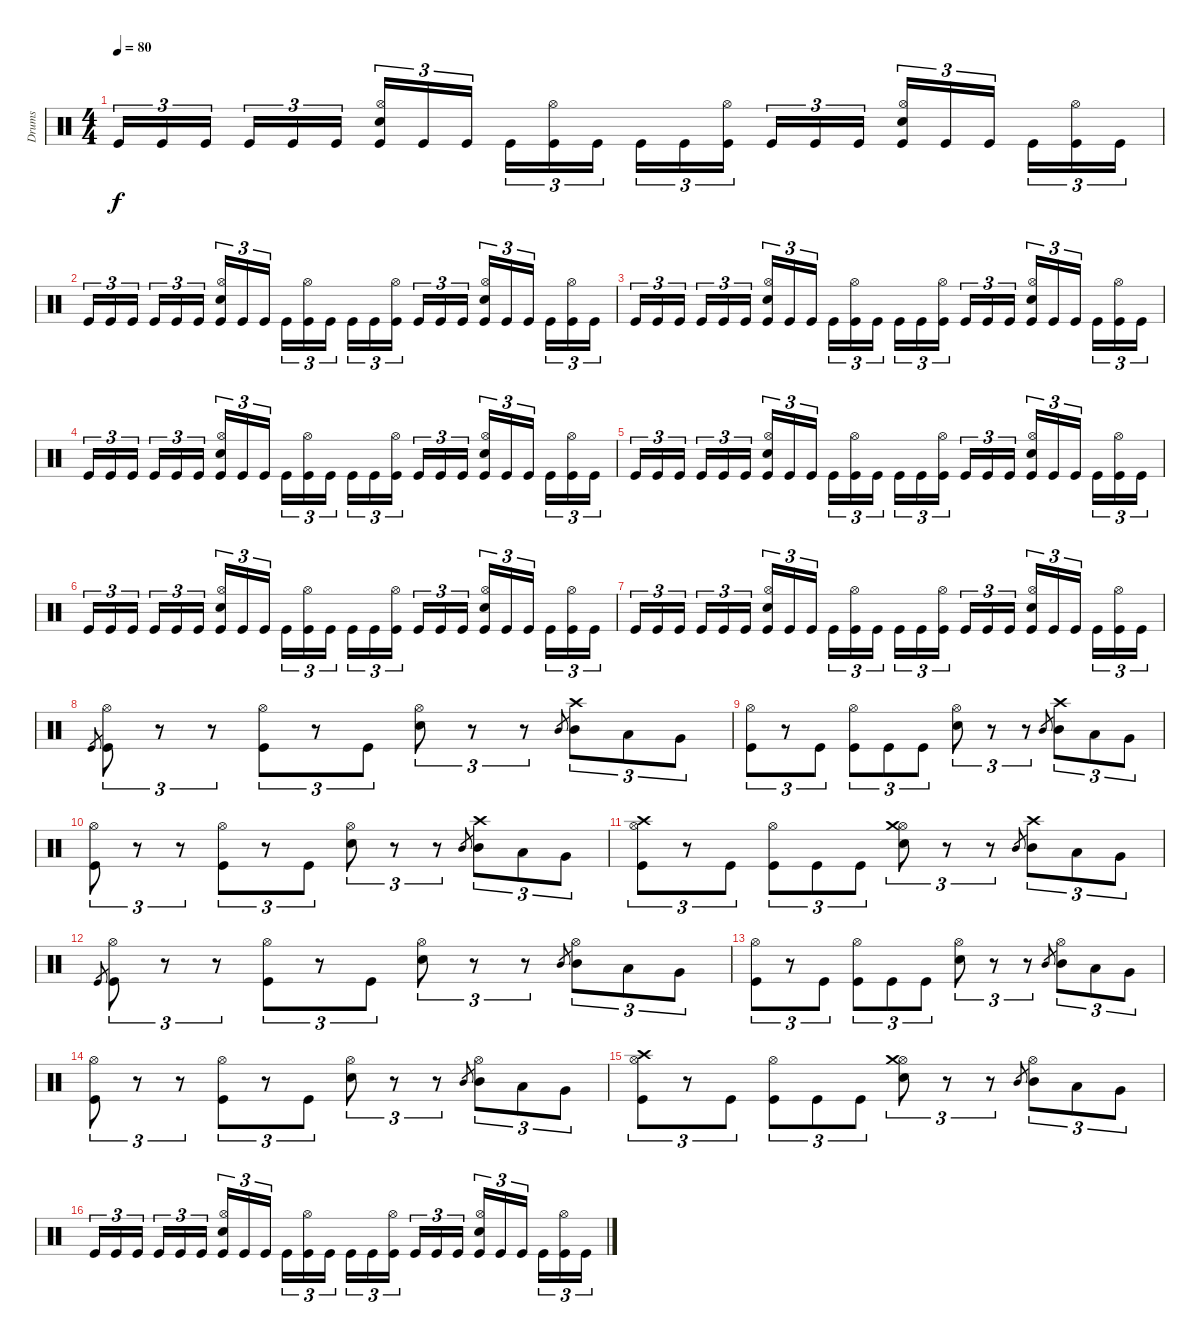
\track ("Drums" "Drums") {instrument percussion}
\staff {score}
\articulation defaults
\ts (4 4)
\tempo 80
\clef neutral
\ks c "Kick (hit)".16{tu (3 2) dy f} "Kick (hit)".16{tu (3 2)} "Kick (hit)".16{tu (3 2)} "Kick (hit)".16{tu (3 2)} "Kick (hit)".16{tu (3 2)} "Kick (hit)".16{tu (3 2)}
("Hi-Hat (open)" "Snare (hit) 2" "Kick (hit)").16{tu (3 2)} "Kick (hit)".16{tu (3 2)} "Kick (hit)".16{tu (3 2)} "Kick (hit)".16{tu (3 2)} ("Hi-Hat (open)" "Kick (hit)").16{tu (3 2)} "Kick (hit)".16{tu (3 2)} "Kick (hit)".16{tu (3 2)} "Kick (hit)".16{tu (3 2)} ("Hi-Hat (open)" "Kick (hit)").16{tu (3 2)} "Kick (hit)".16{tu (3 2)} "Kick (hit)".16{tu (3 2)} "Kick (hit)".16{tu (3 2)} ("Hi-Hat (open)" "Snare (hit) 2" "Kick (hit)").16{tu (3 2)} "Kick (hit)".16{tu (3 2)} "Kick (hit)".16{tu (3 2)} "Kick (hit)".16{tu (3 2)} ("Hi-Hat (open)" "Kick (hit)").16{tu (3 2)} "Kick (hit)".16{tu (3 2)} |
"Kick (hit)".16{tu (3 2)} "Kick (hit)".16{tu (3 2)} "Kick (hit)".16{tu (3 2)} "Kick (hit)".16{tu (3 2)} "Kick (hit)".16{tu (3 2)} "Kick (hit)".16{tu (3 2)} ("Hi-Hat (open)" "Snare (hit) 2" "Kick (hit)").16{tu (3 2)} "Kick (hit)".16{tu (3 2)} "Kick (hit)".16{tu (3 2)} "Kick (hit)".16{tu (3 2)} ("Hi-Hat (open)" "Kick (hit)").16{tu (3 2)} "Kick (hit)".16{tu (3 2)} "Kick (hit)".16{tu (3 2)} "Kick (hit)".16{tu (3 2)} ("Hi-Hat (open)" "Kick (hit)").16{tu (3 2)} "Kick (hit)".16{tu (3 2)} "Kick (hit)".16{tu (3 2)} "Kick (hit)".16{tu (3 2)} ("Hi-Hat (open)" "Snare (hit) 2" "Kick (hit)").16{tu (3 2)} "Kick (hit)".16{tu (3 2)} "Kick (hit)".16{tu (3 2)} "Kick (hit)".16{tu (3 2)} ("Hi-Hat (open)" "Kick (hit)").16{tu (3 2)} "Kick (hit)".16{tu (3 2)} |
"Kick (hit)".16{tu (3 2)} "Kick (hit)".16{tu (3 2)} "Kick (hit)".16{tu (3 2)} "Kick (hit)".16{tu (3 2)} "Kick (hit)".16{tu (3 2)} "Kick (hit)".16{tu (3 2)} ("Hi-Hat (open)" "Snare (hit) 2" "Kick (hit)").16{tu (3 2)} "Kick (hit)".16{tu (3 2)} "Kick (hit)".16{tu (3 2)} "Kick (hit)".16{tu (3 2)} ("Hi-Hat (open)" "Kick (hit)").16{tu (3 2)} "Kick (hit)".16{tu (3 2)} "Kick (hit)".16{tu (3 2)} "Kick (hit)".16{tu (3 2)} ("Hi-Hat (open)" "Kick (hit)").16{tu (3 2)} "Kick (hit)".16{tu (3 2)} "Kick (hit)".16{tu (3 2)} "Kick (hit)".16{tu (3 2)} ("Hi-Hat (open)" "Snare (hit) 2" "Kick (hit)").16{tu (3 2)} "Kick (hit)".16{tu (3 2)} "Kick (hit)".16{tu (3 2)} "Kick (hit)".16{tu (3 2)} ("Hi-Hat (open)" "Kick (hit)").16{tu (3 2)} "Kick (hit)".16{tu (3 2)} |
"Kick (hit)".16{tu (3 2)} "Kick (hit)".16{tu (3 2)} "Kick (hit)".16{tu (3 2)} "Kick (hit)".16{tu (3 2)} "Kick (hit)".16{tu (3 2)} "Kick (hit)".16{tu (3 2)} ("Hi-Hat (open)" "Snare (hit) 2" "Kick (hit)").16{tu (3 2)} "Kick (hit)".16{tu (3 2)} "Kick (hit)".16{tu (3 2)} "Kick (hit)".16{tu (3 2)} ("Hi-Hat (open)" "Kick (hit)").16{tu (3 2)} "Kick (hit)".16{tu (3 2)} "Kick (hit)".16{tu (3 2)} "Kick (hit)".16{tu (3 2)} ("Hi-Hat (open)" "Kick (hit)").16{tu (3 2)} "Kick (hit)".16{tu (3 2)} "Kick (hit)".16{tu (3 2)} "Kick (hit)".16{tu (3 2)} ("Hi-Hat (open)" "Snare (hit) 2" "Kick (hit)").16{tu (3 2)} "Kick (hit)".16{tu (3 2)} "Kick (hit)".16{tu (3 2)} "Kick (hit)".16{tu (3 2)} ("Hi-Hat (open)" "Kick (hit)").16{tu (3 2)} "Kick (hit)".16{tu (3 2)} |
"Kick (hit)".16{tu (3 2)} "Kick (hit)".16{tu (3 2)} "Kick (hit)".16{tu (3 2)} "Kick (hit)".16{tu (3 2)} "Kick (hit)".16{tu (3 2)} "Kick (hit)".16{tu (3 2)} ("Hi-Hat (open)" "Snare (hit) 2" "Kick (hit)").16{tu (3 2)} "Kick (hit)".16{tu (3 2)} "Kick (hit)".16{tu (3 2)} "Kick (hit)".16{tu (3 2)} ("Hi-Hat (open)" "Kick (hit)").16{tu (3 2)} "Kick (hit)".16{tu (3 2)} "Kick (hit)".16{tu (3 2)} "Kick (hit)".16{tu (3 2)} ("Hi-Hat (open)" "Kick (hit)").16{tu (3 2)} "Kick (hit)".16{tu (3 2)} "Kick (hit)".16{tu (3 2)} "Kick (hit)".16{tu (3 2)} ("Hi-Hat (open)" "Snare (hit) 2" "Kick (hit)").16{tu (3 2)} "Kick (hit)".16{tu (3 2)} "Kick (hit)".16{tu (3 2)} "Kick (hit)".16{tu (3 2)} ("Hi-Hat (open)" "Kick (hit)").16{tu (3 2)} "Kick (hit)".16{tu (3 2)} |
"Kick (hit)".16{tu (3 2)} "Kick (hit)".16{tu (3 2)} "Kick (hit)".16{tu (3 2)} "Kick (hit)".16{tu (3 2)} "Kick (hit)".16{tu (3 2)} "Kick (hit)".16{tu (3 2)} ("Hi-Hat (open)" "Snare (hit) 2" "Kick (hit)").16{tu (3 2)} "Kick (hit)".16{tu (3 2)} "Kick (hit)".16{tu (3 2)} "Kick (hit)".16{tu (3 2)} ("Hi-Hat (open)" "Kick (hit)").16{tu (3 2)} "Kick (hit)".16{tu (3 2)} "Kick (hit)".16{tu (3 2)} "Kick (hit)".16{tu (3 2)} ("Hi-Hat (open)" "Kick (hit)").16{tu (3 2)} "Kick (hit)".16{tu (3 2)} "Kick (hit)".16{tu (3 2)} "Kick (hit)".16{tu (3 2)} ("Hi-Hat (open)" "Snare (hit) 2" "Kick (hit)").16{tu (3 2)} "Kick (hit)".16{tu (3 2)} "Kick (hit)".16{tu (3 2)} "Kick (hit)".16{tu (3 2)} ("Hi-Hat (open)" "Kick (hit)").16{tu (3 2)} "Kick (hit)".16{tu (3 2)} |
"Kick (hit)".16{tu (3 2)} "Kick (hit)".16{tu (3 2)} "Kick (hit)".16{tu (3 2)} "Kick (hit)".16{tu (3 2)} "Kick (hit)".16{tu (3 2)} "Kick (hit)".16{tu (3 2)} ("Hi-Hat (open)" "Snare (hit) 2" "Kick (hit)").16{tu (3 2)} "Kick (hit)".16{tu (3 2)} "Kick (hit)".16{tu (3 2)} "Kick (hit)".16{tu (3 2)} ("Hi-Hat (open)" "Kick (hit)").16{tu (3 2)} "Kick (hit)".16{tu (3 2)} "Kick (hit)".16{tu (3 2)} "Kick (hit)".16{tu (3 2)} ("Hi-Hat (open)" "Kick (hit)").16{tu (3 2)} "Kick (hit)".16{tu (3 2)} "Kick (hit)".16{tu (3 2)} "Kick (hit)".16{tu (3 2)} ("Hi-Hat (open)" "Snare (hit) 2" "Kick (hit)").16{tu (3 2)} "Kick (hit)".16{tu (3 2)} "Kick (hit)".16{tu (3 2)} "Kick (hit)".16{tu (3 2)} ("Hi-Hat (open)" "Kick (hit)").16{tu (3 2)} "Kick (hit)".16{tu (3 2)} |
"Kick (hit)".8{gr} ("Hi-Hat (open)" "Kick (hit)").8{tu (3 2)} r.8{tu (3 2)} r.8{tu (3 2)} ("Hi-Hat (open)" "Kick (hit)").8{tu (3 2)} r.8{tu (3 2)} "Kick (hit)".8{tu (3 2)} ("Hi-Hat (open)" "Snare (hit) 2").8{tu (3 2)} r.8{tu (3 2)} r.8{tu (3 2)} "Mid Tom (hit)".8{gr} ("Crash high (hit)" "Mid Tom (hit)").8{tu (3 2)} "Low Tom (hit)".8{tu (3 2)} "Very Low Tom (hit)".8{tu (3 2)} |
("Hi-Hat (open)" "Kick (hit)").8{tu (3 2)} r.8{tu (3 2)} "Kick (hit)".8{tu (3 2)} ("Hi-Hat (open)" "Kick (hit)").8{tu (3 2)} "Kick (hit)".8{tu (3 2)} "Kick (hit)".8{tu (3 2)} ("Hi-Hat (open)" "Snare (hit) 2").8{tu (3 2)} r.8{tu (3 2)} r.8{tu (3 2)} "Mid Tom (hit)".8{gr} ("Crash high (hit)" "Mid Tom (hit)").8{tu (3 2)} "Low Tom (hit)".8{tu (3 2)} "Very Low Tom (hit)".8{tu (3 2)} |
("Hi-Hat (open)" "Kick (hit)").8{tu (3 2)} r.8{tu (3 2)} r.8{tu (3 2)} ("Hi-Hat (open)" "Kick (hit)").8{tu (3 2)} r.8{tu (3 2)} "Kick (hit)".8{tu (3 2)} ("Hi-Hat (open)" "Snare (hit) 2").8{tu (3 2)} r.8{tu (3 2)} r.8{tu (3 2)} "Mid Tom (hit)".8{gr} ("Crash high (hit)" "Mid Tom (hit)").8{tu (3 2)} "Low Tom (hit)".8{tu (3 2)} "Very Low Tom (hit)".8{tu (3 2)} |
("Hi-Hat (open)" "Crash high (hit)" "Kick (hit)").8{tu (3 2)} r.8{tu (3 2)} "Kick (hit)".8{tu (3 2)} ("Hi-Hat (open)" "Kick (hit)").8{tu (3 2)} "Kick (hit)".8{tu (3 2)} "Kick (hit)".8{tu (3 2)} ("Hi-Hat (open)" "Crash medium (hit)" "Snare (hit) 2").8{tu (3 2)} r.8{tu (3 2)} r.8{tu (3 2)} "Mid Tom (hit)".8{gr} ("Crash high (hit)" "Mid Tom (hit)").8{tu (3 2)} "Low Tom (hit)".8{tu (3 2)} "Very Low Tom (hit)".8{tu (3 2)} |
"Kick (hit)".8{gr} ("Hi-Hat (open)" "Kick (hit)").8{tu (3 2)} r.8{tu (3 2)} r.8{tu (3 2)} ("Hi-Hat (open)" "Kick (hit)").8{tu (3 2)} r.8{tu (3 2)} "Kick (hit)".8{tu (3 2)} ("Hi-Hat (open)" "Snare (hit) 2").8{tu (3 2)} r.8{tu (3 2)} r.8{tu (3 2)} "Mid Tom (hit)".8{gr} ("Hi-Hat (open)" "Mid Tom (hit)").8{tu (3 2)} "Low Tom (hit)".8{tu (3 2)} "Very Low Tom (hit)".8{tu (3 2)} |
("Hi-Hat (open)" "Kick (hit)").8{tu (3 2)} r.8{tu (3 2)} "Kick (hit)".8{tu (3 2)} ("Hi-Hat (open)" "Kick (hit)").8{tu (3 2)} "Kick (hit)".8{tu (3 2)} "Kick (hit)".8{tu (3 2)} ("Hi-Hat (open)" "Snare (hit) 2").8{tu (3 2)} r.8{tu (3 2)} r.8{tu (3 2)} "Mid Tom (hit)".8{gr} ("Hi-Hat (open)" "Mid Tom (hit)").8{tu (3 2)} "Low Tom (hit)".8{tu (3 2)} "Very Low Tom (hit)".8{tu (3 2)} |
("Hi-Hat (open)" "Kick (hit)").8{tu (3 2)} r.8{tu (3 2)} r.8{tu (3 2)} ("Hi-Hat (open)" "Kick (hit)").8{tu (3 2)} r.8{tu (3 2)} "Kick (hit)".8{tu (3 2)} ("Hi-Hat (open)" "Snare (hit) 2").8{tu (3 2)} r.8{tu (3 2)} r.8{tu (3 2)} "Mid Tom (hit)".8{gr} ("Hi-Hat (open)" "Mid Tom (hit)").8{tu (3 2)} "Low Tom (hit)".8{tu (3 2)} "Very Low Tom (hit)".8{tu (3 2)} |
("Hi-Hat (open)" "Crash high (hit)" "Kick (hit)").8{tu (3 2)} r.8{tu (3 2)} "Kick (hit)".8{tu (3 2)} ("Hi-Hat (open)" "Kick (hit)").8{tu (3 2)} "Kick (hit)".8{tu (3 2)} "Kick (hit)".8{tu (3 2)} ("Hi-Hat (open)" "Crash medium (hit)" "Snare (hit) 2").8{tu (3 2)} r.8{tu (3 2)} r.8{tu (3 2)} "Mid Tom (hit)".8{gr} ("Hi-Hat (open)" "Mid Tom (hit)").8{tu (3 2)} "Low Tom (hit)".8{tu (3 2)} "Very Low Tom (hit)".8{tu (3 2)} |
"Kick (hit)".16{tu (3 2)} "Kick (hit)".16{tu (3 2)} "Kick (hit)".16{tu (3 2)} "Kick (hit)".16{tu (3 2)} "Kick (hit)".16{tu (3 2)} "Kick (hit)".16{tu (3 2)} ("Hi-Hat (open)" "Snare (hit) 2" "Kick (hit)").16{tu (3 2)} "Kick (hit)".16{tu (3 2)} "Kick (hit)".16{tu (3 2)} "Kick (hit)".16{tu (3 2)} ("Hi-Hat (open)" "Kick (hit)").16{tu (3 2)} "Kick (hit)".16{tu (3 2)} "Kick (hit)".16{tu (3 2)} "Kick (hit)".16{tu (3 2)} ("Hi-Hat (open)" "Kick (hit)").16{tu (3 2)} "Kick (hit)".16{tu (3 2)} "Kick (hit)".16{tu (3 2)} "Kick (hit)".16{tu (3 2)} ("Hi-Hat (open)" "Snare (hit) 2" "Kick (hit)").16{tu (3 2)} "Kick (hit)".16{tu (3 2)} "Kick (hit)".16{tu (3 2)} "Kick (hit)".16{tu (3 2)} ("Hi-Hat (open)" "Kick (hit)").16{tu (3 2)} "Kick (hit)".16{tu (3 2)}
